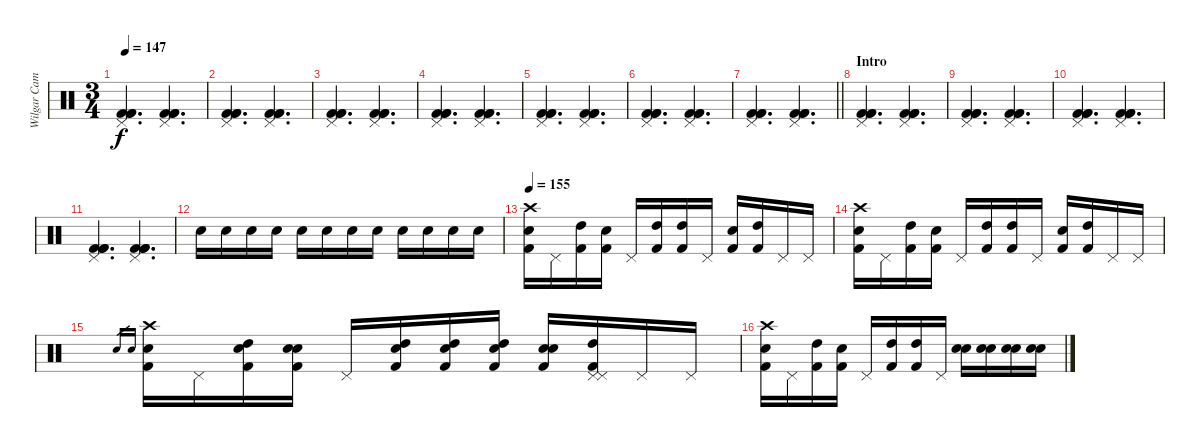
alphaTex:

\track ("Wilgar Campbell" "Wilgar Cam") {instrument percussion}
\staff {score}
\articulation defaults
\ts (3 4)
\tempo 147
\clef neutral
\ks c
("Kick (hit) 2" "Pedal Hi-Hat (hit)" "Kick (hit) 2" "Kick (hit) 2").4{d dy f} ("Kick (hit) 2" "Pedal Hi-Hat (hit)" "Kick (hit) 2" "Kick (hit) 2").4{d} |
("Kick (hit) 2" "Pedal Hi-Hat (hit)" "Kick (hit) 2" "Kick (hit) 2").4{d} ("Kick (hit) 2" "Pedal Hi-Hat (hit)" "Kick (hit) 2" "Kick (hit) 2").4{d} |
("Kick (hit) 2" "Pedal Hi-Hat (hit)" "Kick (hit) 2" "Kick (hit) 2").4{d} ("Kick (hit) 2" "Pedal Hi-Hat (hit)" "Kick (hit) 2" "Kick (hit) 2").4{d} |
("Kick (hit) 2" "Pedal Hi-Hat (hit)" "Kick (hit) 2" "Kick (hit) 2").4{d} ("Kick (hit) 2" "Pedal Hi-Hat (hit)" "Kick (hit) 2" "Kick (hit) 2").4{d} |
("Kick (hit) 2" "Pedal Hi-Hat (hit)" "Kick (hit) 2" "Kick (hit) 2").4{d} ("Kick (hit) 2" "Pedal Hi-Hat (hit)" "Kick (hit) 2" "Kick (hit) 2").4{d} |
("Kick (hit) 2" "Pedal Hi-Hat (hit)" "Kick (hit) 2" "Kick (hit) 2").4{d} ("Kick (hit) 2" "Pedal Hi-Hat (hit)" "Kick (hit) 2" "Kick (hit) 2").4{d} |
\barLineRight lightlight
("Kick (hit) 2" "Pedal Hi-Hat (hit)" "Kick (hit) 2" "Kick (hit) 2").4{d} ("Kick (hit) 2" "Pedal Hi-Hat (hit)" "Kick (hit) 2" "Kick (hit) 2").4{d} |
\section ("" "Intro")
("Kick (hit) 2" "Pedal Hi-Hat (hit)" "Kick (hit) 2" "Kick (hit) 2").4{d} ("Kick (hit) 2" "Pedal Hi-Hat (hit)" "Kick (hit) 2" "Kick (hit) 2").4{d} |
("Kick (hit) 2" "Pedal Hi-Hat (hit)" "Kick (hit) 2" "Kick (hit) 2").4{d} ("Kick (hit) 2" "Pedal Hi-Hat (hit)" "Kick (hit) 2" "Kick (hit) 2").4{d} |
("Kick (hit) 2" "Pedal Hi-Hat (hit)" "Kick (hit) 2" "Kick (hit) 2").4{d} ("Kick (hit) 2" "Pedal Hi-Hat (hit)" "Kick (hit) 2" "Kick (hit) 2").4{d} |
("Kick (hit) 2" "Pedal Hi-Hat (hit)" "Kick (hit) 2" "Kick (hit) 2").4{d} ("Kick (hit) 2" "Pedal Hi-Hat (hit)" "Kick (hit) 2" "Kick (hit) 2").4{d} |
"Electric Snare (hit)".16 "Electric Snare (hit)".16 "Electric Snare (hit)".16 "Electric Snare (hit)".16 "Electric Snare (hit)".16 "Electric Snare (hit)".16 "Electric Snare (hit)".16 "Electric Snare (hit)".16 "Electric Snare (hit)".16 "Electric Snare (hit)".16 "Electric Snare (hit)".16 "Electric Snare (hit)".16 |
\tempo 155
("Kick (hit) 2" "Snare (hit) 2" "Crash high (hit)").16 "Pedal Hi-Hat (hit)".16 ("Kick (hit) 2" "High Tom (hit)").16 ("Kick (hit) 2" "Snare (hit) 2").16 "Pedal Hi-Hat (hit)".16 ("High Tom (hit)" "Kick (hit) 2").16 ("High Tom (hit)" "Kick (hit) 2").16 "Pedal Hi-Hat (hit)".16 ("Electric Snare (hit)" "Kick (hit) 2").16 ("High Tom (hit)" "Kick (hit) 2").16 "Pedal Hi-Hat (hit)".16 "Pedal Hi-Hat (hit)".16 |
("Kick (hit) 2" "Snare (hit) 2" "Crash high (hit)").16 "Pedal Hi-Hat (hit)".16 ("Kick (hit) 2" "High Tom (hit)").16 ("Kick (hit) 2" "Snare (hit) 2").16 "Pedal Hi-Hat (hit)".16 ("High Tom (hit)" "Kick (hit) 2").16 ("High Tom (hit)" "Kick (hit) 2").16 "Pedal Hi-Hat (hit)".16 ("Electric Snare (hit)" "Kick (hit) 2").16 ("High Tom (hit)" "Kick (hit) 2").16 "Pedal Hi-Hat (hit)".16 "Pedal Hi-Hat (hit)".16 |
"Electric Snare (hit)".16{gr} "Electric Snare (hit)".16{gr} ("Kick (hit) 2" "Snare (hit) 2" "Crash high (hit)").16 "Pedal Hi-Hat (hit)".16 ("Electric Snare (hit)" "Kick (hit) 2" "High Tom (hit)").16 ("Electric Snare (hit)" "Kick (hit) 2" "Snare (hit) 2").16 "Pedal Hi-Hat (hit)".16 ("Electric Snare (hit)" "High Tom (hit)" "Kick (hit) 2").16 ("Electric Snare (hit)" "High Tom (hit)" "Kick (hit) 2").16 ("Electric Snare (hit)" "High Tom (hit)" "Kick (hit) 2").16 ("Electric Snare (hit)" "Electric Snare (hit)" "Kick (hit) 2").16 ("Kick (hit) 2" "Pedal Hi-Hat (hit)" "High Tom (hit)" "Pedal Hi-Hat (hit)").16 "Pedal Hi-Hat (hit)".16 "Pedal Hi-Hat (hit)".16 |
("Kick (hit) 2" "Snare (hit) 2" "Crash high (hit)").16 "Pedal Hi-Hat (hit)".16 ("Kick (hit) 2" "High Tom (hit)").16 ("Kick (hit) 2" "Snare (hit) 2").16 "Pedal Hi-Hat (hit)".16 ("High Tom (hit)" "Kick (hit) 2").16 ("High Tom (hit)" "Kick (hit) 2").16 "Pedal Hi-Hat (hit)".16 ("Electric Snare (hit)" "Electric Snare (hit)").16 ("Electric Snare (hit)" "Electric Snare (hit)").16 ("Electric Snare (hit)" "Electric Snare (hit)").16 ("Electric Snare (hit)" "Electric Snare (hit)").16
